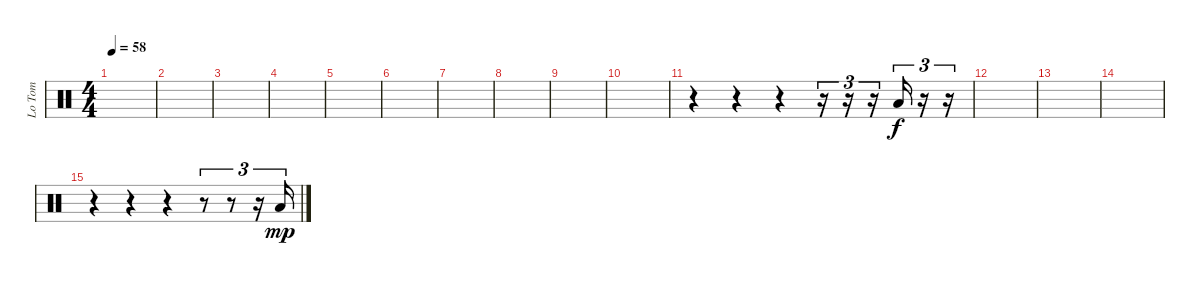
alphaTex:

\track ("Lo Tom" "Lo Tom") {instrument percussion}
\staff {score}
\articulation defaults
\ts (4 4)
\tempo 58
\clef neutral
\ks c
|
|
|
|
|
|
|
|
|
|
r.4 r.4 r.4 r.16{tu (3 2)} r.16{tu (3 2)} r.16{tu (3 2)} "Low Tom (hit)".16{tu (3 2)} r.16{tu (3 2)} r.16{tu (3 2)} |
|
|
|
r.4 r.4 r.4 r.8{tu (3 2)} r.8{tu (3 2)} r.16{tu (3 2)} "Low Tom (hit)".16{tu (3 2) dy mp}
